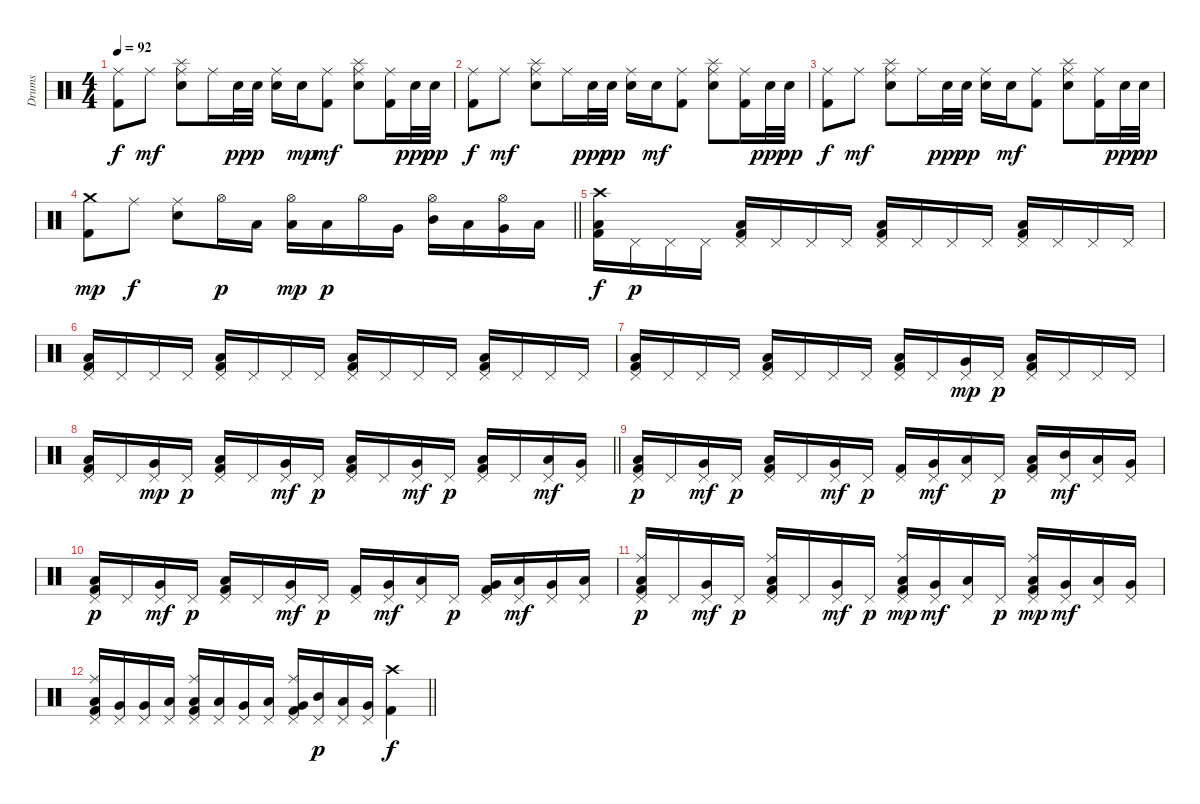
\track ("Drums" "Drums") {instrument percussion}
\staff {score}
\articulation defaults
\ts (4 4)
\tempo 92
\clef neutral
\ks aminor
("Ride (middle)" "Kick (hit) 2").8{dy f} "Ride (middle)".8{dy mf} ("Ride (middle)" "Splash (hit)" "Electric Snare (hit)").8 "Ride (middle)".16 "Electric Snare (hit)".32{dy pp} "Electric Snare (hit)".32{dy p} ("Ride (middle)" "Electric Snare (hit)").16 "Electric Snare (hit)".16{dy mp} ("Ride (middle)" "Kick (hit) 2").8{dy mf} ("Ride (middle)" "Splash (hit)" "Electric Snare (hit)").8 ("Ride (middle)" "Kick (hit) 2").16 "Electric Snare (hit)".32{dy ppp} "Electric Snare (hit)".32{dy pp} |
("Ride (middle)" "Kick (hit) 2").8{dy f} "Ride (middle)".8{dy mf} ("Ride (middle)" "Splash (hit)" "Electric Snare (hit)").8 "Ride (middle)".16 "Electric Snare (hit)".32{dy ppp} "Electric Snare (hit)".32{dy pp} ("Ride (middle)" "Electric Snare (hit)").16 "Electric Snare (hit)".16{dy mf} ("Ride (middle)" "Kick (hit) 2").8 ("Ride (middle)" "Splash (hit)" "Electric Snare (hit)").8 ("Ride (middle)" "Kick (hit) 2").16 "Electric Snare (hit)".32{dy ppp} "Electric Snare (hit)".32{dy pp} |
("Ride (middle)" "Kick (hit) 2").8{dy f} "Ride (middle)".8{dy mf} ("Ride (middle)" "Splash (hit)" "Electric Snare (hit)").8 "Ride (middle)".16 "Electric Snare (hit)".32{dy ppp} "Electric Snare (hit)".32{dy pp} ("Ride (middle)" "Electric Snare (hit)").16 "Electric Snare (hit)".16{dy mf} ("Ride (middle)" "Kick (hit) 2").8 ("Ride (middle)" "Splash (hit)" "Electric Snare (hit)").8 ("Ride (middle)" "Kick (hit) 2").16 "Electric Snare (hit)".32{dy ppp} "Electric Snare (hit)".32{dy pp} |
\barLineRight lightlight
("Crash medium (hit)" "Kick (hit) 2").8{dy mp} "Ride (middle)".8{dy f} ("Ride (middle)" "Electric Snare (hit)").8 "Hi-Hat (open)".16{dy p} "Low Tom (hit)".16 ("Hi-Hat (open)" "Low Tom (hit)").16{dy mp} "Low Tom (hit)".16{dy p} "Hi-Hat (open)".16 "Very Low Tom (hit)".16 ("Hi-Hat (open)" "Mid Tom (hit)").16 "Low Tom (hit)".16 ("Hi-Hat (open)" "Very Low Tom (hit)").16 "Low Floor Tom (hit)".16 |
("Crash high (hit)" "Low Floor Tom (hit)" "Kick (hit) 2").16{dy f} "Pedal Hi-Hat (hit)".16{dy p} "Pedal Hi-Hat (hit)".16 "Pedal Hi-Hat (hit)".16 ("Pedal Hi-Hat (hit)" "Low Floor Tom (hit)" "Kick (hit) 2").16 "Pedal Hi-Hat (hit)".16 "Pedal Hi-Hat (hit)".16 "Pedal Hi-Hat (hit)".16 ("Pedal Hi-Hat (hit)" "Low Floor Tom (hit)" "Kick (hit) 2").16 "Pedal Hi-Hat (hit)".16 "Pedal Hi-Hat (hit)".16 "Pedal Hi-Hat (hit)".16 ("Pedal Hi-Hat (hit)" "Low Floor Tom (hit)" "Kick (hit) 2").16 "Pedal Hi-Hat (hit)".16 "Pedal Hi-Hat (hit)".16 "Pedal Hi-Hat (hit)".16 |
("Pedal Hi-Hat (hit)" "Low Floor Tom (hit)" "Kick (hit) 2").16 "Pedal Hi-Hat (hit)".16 "Pedal Hi-Hat (hit)".16 "Pedal Hi-Hat (hit)".16 ("Pedal Hi-Hat (hit)" "Low Floor Tom (hit)" "Kick (hit) 2").16 "Pedal Hi-Hat (hit)".16 "Pedal Hi-Hat (hit)".16 "Pedal Hi-Hat (hit)".16 ("Pedal Hi-Hat (hit)" "Low Floor Tom (hit)" "Kick (hit) 2").16 "Pedal Hi-Hat (hit)".16 "Pedal Hi-Hat (hit)".16 "Pedal Hi-Hat (hit)".16 ("Pedal Hi-Hat (hit)" "Low Floor Tom (hit)" "Kick (hit) 2").16 "Pedal Hi-Hat (hit)".16 "Pedal Hi-Hat (hit)".16 "Pedal Hi-Hat (hit)".16 |
("Pedal Hi-Hat (hit)" "Low Floor Tom (hit)" "Kick (hit) 2").16 "Pedal Hi-Hat (hit)".16 "Pedal Hi-Hat (hit)".16 "Pedal Hi-Hat (hit)".16 ("Pedal Hi-Hat (hit)" "Low Floor Tom (hit)" "Kick (hit) 2").16 "Pedal Hi-Hat (hit)".16 "Pedal Hi-Hat (hit)".16 "Pedal Hi-Hat (hit)".16 ("Pedal Hi-Hat (hit)" "Low Floor Tom (hit)" "Kick (hit) 2").16 "Pedal Hi-Hat (hit)".16 ("Pedal Hi-Hat (hit)" "Very Low Tom (hit)").16{dy mp} "Pedal Hi-Hat (hit)".16{dy p} ("Pedal Hi-Hat (hit)" "Low Floor Tom (hit)" "Kick (hit) 2").16 "Pedal Hi-Hat (hit)".16 "Pedal Hi-Hat (hit)".16 "Pedal Hi-Hat (hit)".16 |
\barLineRight lightlight
("Pedal Hi-Hat (hit)" "Low Floor Tom (hit)" "Kick (hit) 2").16 "Pedal Hi-Hat (hit)".16 ("Pedal Hi-Hat (hit)" "Very Low Tom (hit)").16{dy mp} "Pedal Hi-Hat (hit)".16{dy p} ("Pedal Hi-Hat (hit)" "Low Floor Tom (hit)" "Kick (hit) 2").16 "Pedal Hi-Hat (hit)".16 ("Pedal Hi-Hat (hit)" "Very Low Tom (hit)").16{dy mf} "Pedal Hi-Hat (hit)".16{dy p} ("Pedal Hi-Hat (hit)" "Low Floor Tom (hit)" "Kick (hit) 2").16 "Pedal Hi-Hat (hit)".16 ("Pedal Hi-Hat (hit)" "Very Low Tom (hit)").16{dy mf} "Pedal Hi-Hat (hit)".16{dy p} ("Pedal Hi-Hat (hit)" "Low Floor Tom (hit)" "Kick (hit) 2").16 "Pedal Hi-Hat (hit)".16 ("Pedal Hi-Hat (hit)" "Low Tom (hit)").16{dy mf} ("Pedal Hi-Hat (hit)" "Very Low Tom (hit)").16 |
("Pedal Hi-Hat (hit)" "Low Floor Tom (hit)" "Kick (hit) 2").16{dy p} "Pedal Hi-Hat (hit)".16 ("Pedal Hi-Hat (hit)" "Very Low Tom (hit)").16{dy mf} "Pedal Hi-Hat (hit)".16{dy p} ("Pedal Hi-Hat (hit)" "Low Floor Tom (hit)" "Kick (hit) 2").16 "Pedal Hi-Hat (hit)".16 ("Pedal Hi-Hat (hit)" "Very Low Tom (hit)").16{dy mf} "Pedal Hi-Hat (hit)".16{dy p} ("Pedal Hi-Hat (hit)" "Kick (hit) 2").16 ("Pedal Hi-Hat (hit)" "Very Low Tom (hit)").16{dy mf} ("Pedal Hi-Hat (hit)" "Low Tom (hit)").16 "Pedal Hi-Hat (hit)".16{dy p} ("Pedal Hi-Hat (hit)" "Low Floor Tom (hit)" "Kick (hit) 2").16 ("Pedal Hi-Hat (hit)" "Mid Tom (hit)").16{dy mf} ("Pedal Hi-Hat (hit)" "Low Tom (hit)").16 ("Pedal Hi-Hat (hit)" "Very Low Tom (hit)").16 |
("Pedal Hi-Hat (hit)" "Low Floor Tom (hit)" "Kick (hit) 2").16{dy p} "Pedal Hi-Hat (hit)".16 ("Pedal Hi-Hat (hit)" "Very Low Tom (hit)").16{dy mf} "Pedal Hi-Hat (hit)".16{dy p} ("Pedal Hi-Hat (hit)" "Low Floor Tom (hit)" "Kick (hit) 2").16 "Pedal Hi-Hat (hit)".16 ("Pedal Hi-Hat (hit)" "Very Low Tom (hit)").16{dy mf} "Pedal Hi-Hat (hit)".16{dy p} ("Pedal Hi-Hat (hit)" "Kick (hit) 2").16 ("Pedal Hi-Hat (hit)" "Very Low Tom (hit)").16{dy mf} ("Pedal Hi-Hat (hit)" "Low Tom (hit)").16 "Pedal Hi-Hat (hit)".16{dy p} ("Pedal Hi-Hat (hit)" "Very Low Tom (hit)" "Kick (hit) 2").16 ("Pedal Hi-Hat (hit)" "Low Tom (hit)").16{dy mf} ("Pedal Hi-Hat (hit)" "Very Low Tom (hit)").16 ("Pedal Hi-Hat (hit)" "Low Floor Tom (hit)").16 |
("Pedal Hi-Hat (hit)" "Ride (middle)" "Low Floor Tom (hit)" "Kick (hit) 2").16{dy p} "Pedal Hi-Hat (hit)".16 ("Pedal Hi-Hat (hit)" "Very Low Tom (hit)").16{dy mf} "Pedal Hi-Hat (hit)".16{dy p} ("Pedal Hi-Hat (hit)" "Ride (middle)" "Low Floor Tom (hit)" "Kick (hit) 2").16 "Pedal Hi-Hat (hit)".16 ("Pedal Hi-Hat (hit)" "Very Low Tom (hit)").16{dy mf} "Pedal Hi-Hat (hit)".16{dy p} ("Pedal Hi-Hat (hit)" "Ride (middle)" "Low Floor Tom (hit)" "Kick (hit) 2").16{dy mp} ("Pedal Hi-Hat (hit)" "Very Low Tom (hit)").16{dy mf} ("Pedal Hi-Hat (hit)" "Low Tom (hit)").16 "Pedal Hi-Hat (hit)".16{dy p} ("Pedal Hi-Hat (hit)" "Ride (middle)" "Low Floor Tom (hit)" "Kick (hit) 2").16{dy mp} ("Pedal Hi-Hat (hit)" "Very Low Tom (hit)").16{dy mf} ("Pedal Hi-Hat (hit)" "Low Tom (hit)").16 ("Pedal Hi-Hat (hit)" "Very Low Tom (hit)").16 |
\barLineRight lightlight
("Pedal Hi-Hat (hit)" "Ride (middle)" "Low Floor Tom (hit)" "Kick (hit) 2").16 ("Pedal Hi-Hat (hit)" "Very Low Tom (hit)").16 ("Pedal Hi-Hat (hit)" "Very Low Tom (hit)").16 ("Pedal Hi-Hat (hit)" "Low Floor Tom (hit)").16 ("Pedal Hi-Hat (hit)" "Ride (middle)" "Low Floor Tom (hit)" "Kick (hit) 2").16 ("Pedal Hi-Hat (hit)" "Low Tom (hit)").16 ("Pedal Hi-Hat (hit)" "Very Low Tom (hit)").16 ("Pedal Hi-Hat (hit)" "Low Floor Tom (hit)").16 ("Pedal Hi-Hat (hit)" "Ride (middle)" "Very Low Tom (hit)" "Kick (hit) 2").16 ("Pedal Hi-Hat (hit)" "Mid Tom (hit)").16{dy p} ("Pedal Hi-Hat (hit)" "Low Tom (hit)").16 ("Pedal Hi-Hat (hit)" "Very Low Tom (hit)").16 ("Crash high (hit)" "Kick (hit) 2").4{dy f}
